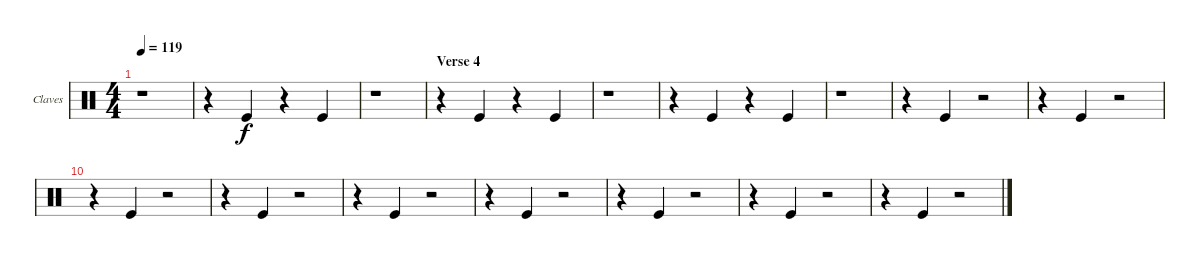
\defaultSystemsLayout 4
\bracketExtendMode groupsimilarinstruments
\useSystemSignSeparator
\multiBarRest
\multiTrackTrackNamePolicy allsystems
\firstSystemTrackNameMode fullname
\firstSystemTrackNameOrientation horizontal
\otherSystemsTrackNameOrientation horizontal
\defaultBarNumberDisplay FirstOfSystem
\track ("Claves" "Claves") {multiBarRest instrument percussion}
\staff {score}
\articulation defaults
\ts (4 4)
\tempo 119
\clef neutral
\ks aminor
r.1{dy f} |
r.4 "Kick (hit)".4 r.4 "Kick (hit)".4 |
r.1 |
\section ("" "Verse 4")
r.4 "Kick (hit)".4 r.4 "Kick (hit)".4 |
r.1 |
r.4 "Kick (hit)".4 r.4 "Kick (hit)".4 |
r.1 |
r.4 "Kick (hit)".4 r.2 |
r.4 "Kick (hit)".4 r.2 |
r.4 "Kick (hit)".4 r.2 |
r.4 "Kick (hit)".4 r.2 |
r.4 "Kick (hit)".4 r.2 |
r.4 "Kick (hit)".4 r.2 |
r.4 "Kick (hit)".4 r.2 |
r.4 "Kick (hit)".4 r.2 |
r.4 "Kick (hit)".4 r.2
